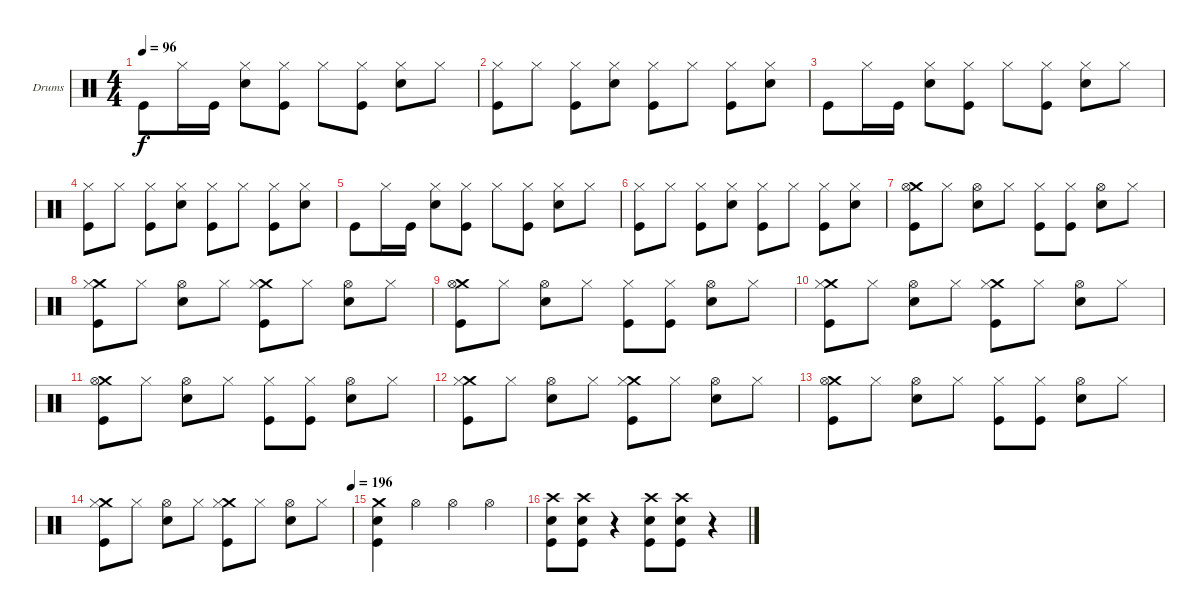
\defaultSystemsLayout 4
\bracketExtendMode groupsimilarinstruments
\firstSystemTrackNameOrientation horizontal
\otherSystemsTrackNameOrientation horizontal
\track ("Lars Ulrich (Drum)" "Drums") {instrument percussion}
\staff {score}
\articulation defaults
\ts (4 4)
\tempo 96
\clef neutral
\scale
0.333333
\ks c "Kick (hit)".8{dy f} "Hi-Hat (closed)".16 "Kick (hit)".16
("Hi-Hat (closed)" "Snare (hit) 2").8 ("Hi-Hat (closed)" "Kick (hit)").8 "Hi-Hat (closed)".8 ("Hi-Hat (closed)" "Kick (hit)").8 ("Hi-Hat (closed)" "Snare (hit) 2").8 "Hi-Hat (closed)".8 |
\scale
0.333333 ("Hi-Hat (closed)" "Kick (hit)").8 "Hi-Hat (closed)".8 ("Hi-Hat (closed)" "Kick (hit)").8 ("Hi-Hat (closed)" "Snare (hit) 2").8 ("Hi-Hat (closed)" "Kick (hit)").8 "Hi-Hat (closed)".8 ("Hi-Hat (closed)" "Kick (hit)").8 ("Hi-Hat (closed)" "Snare (hit) 2").8 |
\scale
0.333333 "Kick (hit)".8 "Hi-Hat (closed)".16 "Kick (hit)".16 ("Hi-Hat (closed)" "Snare (hit) 2").8 ("Hi-Hat (closed)" "Kick (hit)").8 "Hi-Hat (closed)".8 ("Hi-Hat (closed)" "Kick (hit)").8 ("Hi-Hat (closed)" "Snare (hit) 2").8 "Hi-Hat (closed)".8 |
\scale
0.333333 ("Hi-Hat (closed)" "Kick (hit)").8 "Hi-Hat (closed)".8 ("Hi-Hat (closed)" "Kick (hit)").8 ("Hi-Hat (closed)" "Snare (hit) 2").8 ("Hi-Hat (closed)" "Kick (hit)").8 "Hi-Hat (closed)".8 ("Hi-Hat (closed)" "Kick (hit)").8 ("Hi-Hat (closed)" "Snare (hit) 2").8 |
\scale
0.333333 "Kick (hit)".8 "Hi-Hat (closed)".16 "Kick (hit)".16 ("Hi-Hat (closed)" "Snare (hit) 2").8 ("Hi-Hat (closed)" "Kick (hit)").8 "Hi-Hat (closed)".8 ("Hi-Hat (closed)" "Kick (hit)").8 ("Hi-Hat (closed)" "Snare (hit) 2").8 "Hi-Hat (closed)".8 |
\scale
0.333333 ("Hi-Hat (closed)" "Kick (hit)").8 "Hi-Hat (closed)".8 ("Hi-Hat (closed)" "Kick (hit)").8 ("Hi-Hat (closed)" "Snare (hit) 2").8 ("Hi-Hat (closed)" "Kick (hit)").8 "Hi-Hat (closed)".8 ("Hi-Hat (closed)" "Kick (hit)").8 ("Hi-Hat (closed)" "Snare (hit) 2").8 |
\scale
0.333333 ("Crash medium (hit)" "Hi-Hat (open)" "Kick (hit)").8 "Hi-Hat (closed)".8 ("Hi-Hat (open)" "Snare (hit) 2").8 "Hi-Hat (closed)".8 ("Hi-Hat (closed)" "Kick (hit)").8 ("Hi-Hat (closed)" "Kick (hit)").8 ("Hi-Hat (open)" "Snare (hit) 2").8 "Hi-Hat (closed)".8 |
\scale
0.333333 ("Crash medium (hit)" "Hi-Hat (closed)" "Kick (hit)").8 "Hi-Hat (closed)".8 ("Hi-Hat (open)" "Snare (hit) 2").8 "Hi-Hat (closed)".8 ("Crash medium (hit)" "Hi-Hat (closed)" "Kick (hit)").8 "Hi-Hat (closed)".8 ("Hi-Hat (open)" "Snare (hit) 2").8 "Hi-Hat (closed)".8 |
\scale
0.333333 ("Crash medium (hit)" "Hi-Hat (open)" "Kick (hit)").8 "Hi-Hat (closed)".8 ("Hi-Hat (open)" "Snare (hit) 2").8 "Hi-Hat (closed)".8 ("Hi-Hat (closed)" "Kick (hit)").8 ("Hi-Hat (closed)" "Kick (hit)").8 ("Hi-Hat (open)" "Snare (hit) 2").8 "Hi-Hat (closed)".8 |
\scale
0.333333 ("Crash medium (hit)" "Hi-Hat (closed)" "Kick (hit)").8 "Hi-Hat (closed)".8 ("Hi-Hat (open)" "Snare (hit) 2").8 "Hi-Hat (closed)".8 ("Crash medium (hit)" "Hi-Hat (closed)" "Kick (hit)").8 "Hi-Hat (closed)".8 ("Hi-Hat (open)" "Snare (hit) 2").8 "Hi-Hat (closed)".8 |
\scale
0.333333 ("Crash medium (hit)" "Hi-Hat (open)" "Kick (hit)").8 "Hi-Hat (closed)".8 ("Hi-Hat (open)" "Snare (hit) 2").8 "Hi-Hat (closed)".8 ("Hi-Hat (closed)" "Kick (hit)").8 ("Hi-Hat (closed)" "Kick (hit)").8 ("Hi-Hat (open)" "Snare (hit) 2").8 "Hi-Hat (closed)".8 |
\scale
0.333333 ("Crash medium (hit)" "Hi-Hat (closed)" "Kick (hit)").8 "Hi-Hat (closed)".8 ("Hi-Hat (open)" "Snare (hit) 2").8 "Hi-Hat (closed)".8 ("Crash medium (hit)" "Hi-Hat (closed)" "Kick (hit)").8 "Hi-Hat (closed)".8 ("Hi-Hat (open)" "Snare (hit) 2").8 "Hi-Hat (closed)".8 |
\scale
0.333333 ("Crash medium (hit)" "Hi-Hat (open)" "Kick (hit)").8 "Hi-Hat (closed)".8 ("Hi-Hat (open)" "Snare (hit) 2").8 "Hi-Hat (closed)".8 ("Hi-Hat (closed)" "Kick (hit)").8 ("Hi-Hat (closed)" "Kick (hit)").8 ("Hi-Hat (open)" "Snare (hit) 2").8 "Hi-Hat (closed)".8 |
\tempo (196 1)
\scale
0.333333 ("Crash medium (hit)" "Hi-Hat (closed)" "Kick (hit)").8 "Hi-Hat (closed)".8 ("Hi-Hat (open)" "Snare (hit) 2").8 "Hi-Hat (closed)".8 ("Crash medium (hit)" "Hi-Hat (closed)" "Kick (hit)").8 "Hi-Hat (closed)".8 ("Hi-Hat (open)" "Snare (hit) 2").8 "Hi-Hat (closed)".8 |
\scale
0.333333 ("Crash medium (hit)" "Snare (hit) 2" "Kick (hit)").4 "Hi-Hat (open)".4 "Hi-Hat (open)".4 "Hi-Hat (open)".4 |
\scale
0.333333 ("Crash high (hit)" "Snare (hit) 2" "Kick (hit)").8 ("Crash high (hit)" "Snare (hit) 2" "Kick (hit)").8 r.4 ("Crash high (hit)" "Snare (hit) 2" "Kick (hit)").8 ("Crash high (hit)" "Snare (hit) 2" "Kick (hit)").8 r.4
